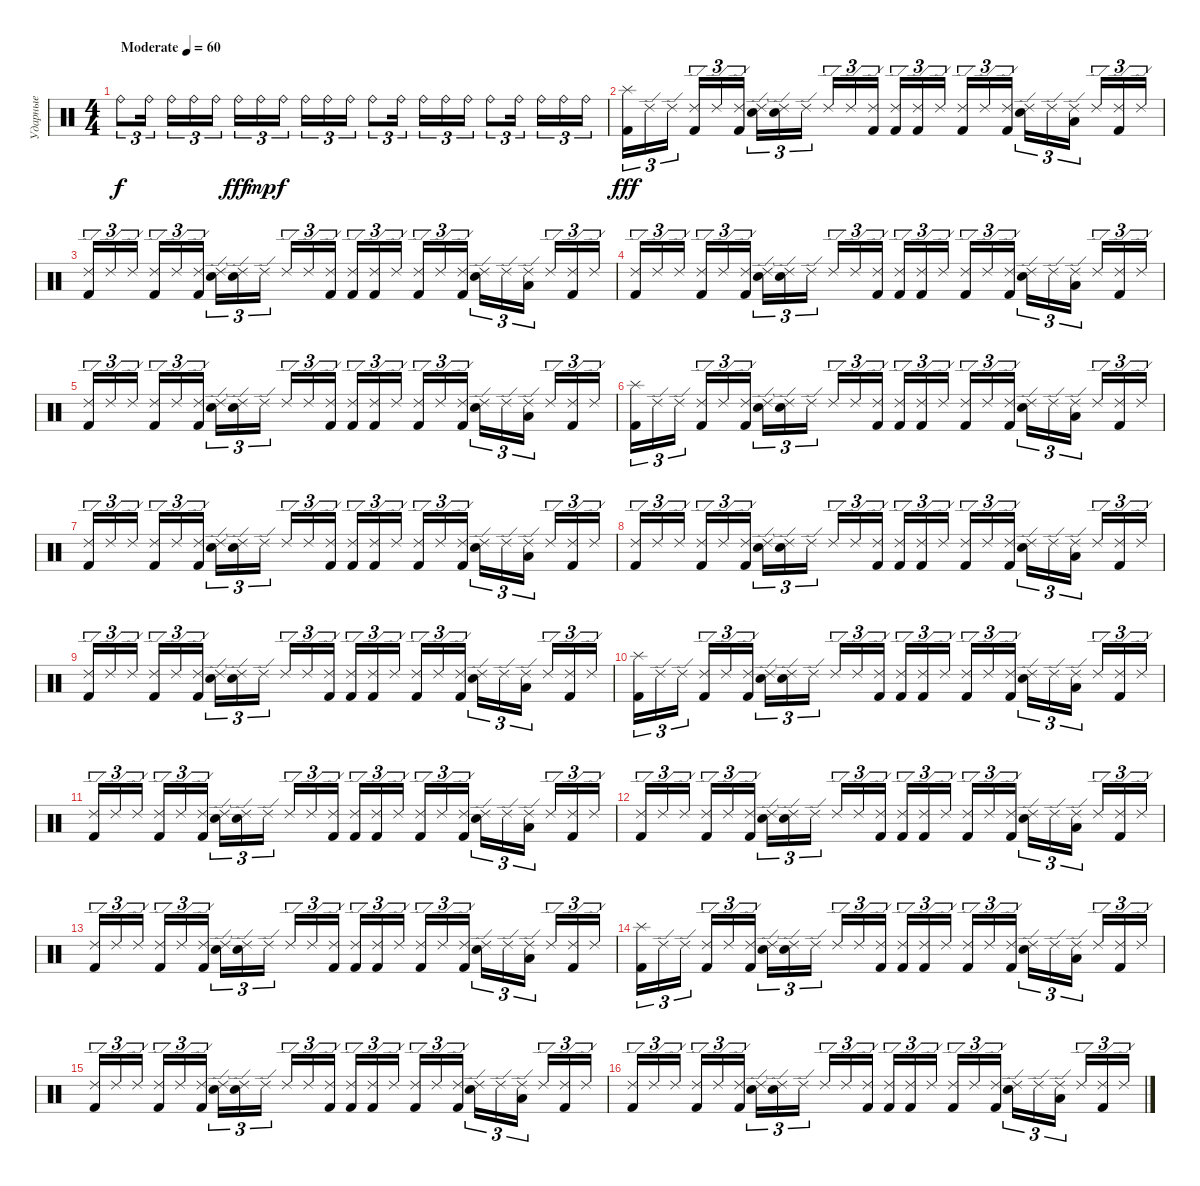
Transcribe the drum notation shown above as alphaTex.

\track ("Ударные" "Ударные") {instrument percussion}
\staff {score}
\articulation defaults
\ts (4 4)
\tempo (60 "Moderate")
\clef neutral
\ks c "Ride (bell)".8{tu (3 2) dy f} "Ride (bell)".16{tu (3 2) beam splitsecondary} "Ride (bell)".16{tu (3 2)} "Ride (bell)".16{tu (3 2)} "Ride (bell)".16{tu (3 2)} "Ride (bell)".16{tu (3 2) dy fff} "Ride (bell)".16{tu (3 2) dy mp} "Ride (bell)".16{tu (3 2) dy f beam splitsecondary} "Ride (bell)".16{tu (3 2)} "Ride (bell)".16{tu (3 2)} "Ride (bell)".16{tu (3 2)} "Ride (bell)".8{tu (3 2)} "Ride (bell)".16{tu (3 2) beam splitsecondary} "Ride (bell)".16{tu (3 2)} "Ride (bell)".16{tu (3 2)} "Ride (bell)".16{tu (3 2)} "Ride (bell)".8{tu (3 2)} "Ride (bell)".16{tu (3 2) beam splitsecondary} "Ride (bell)".16{tu (3 2)} "Ride (bell)".16{tu (3 2)} "Ride (bell)".16{tu (3 2)}
|
("Kick (hit) 2" "Splash (hit)").16{tu (3 2) dy fff} "Ride (edge) 2".16{tu (3 2)} "Ride (edge) 2".16{tu (3 2) beam splitsecondary} ("Kick (hit) 2" "Ride (edge) 2").16{tu (3 2)} "Ride (edge) 2".16{tu (3 2)} ("Kick (hit) 2" "Ride (edge) 2").16{tu (3 2)} ("Electric Snare (hit)" "Ride (edge) 2").16{tu (3 2)} ("Snare (hit)"{t} "Ride (edge) 2").16{tu (3 2)} "Ride (edge) 2".16{tu (3 2) beam splitsecondary} "Ride (edge) 2".16{tu (3 2)} "Ride (edge) 2".16{tu (3 2)} ("Kick (hit) 2" "Ride (edge) 2").16{tu (3 2)} ("Kick (hit) 2" "Ride (edge) 2").16{tu (3 2)} ("Kick (hit) 2" "Ride (edge) 2").16{tu (3 2)} "Ride (edge) 2".16{tu (3 2) beam splitsecondary} ("Kick (hit) 2" "Ride (edge) 2").16{tu (3 2)} "Ride (edge) 2".16{tu (3 2)} ("Kick (hit) 2" "Ride (edge) 2").16{tu (3 2)} ("Electric Snare (hit)" "Ride (edge) 2").16{tu (3 2)} "Ride (edge) 2".16{tu (3 2)} ("Low Floor Tom (hit)" "Ride (edge) 2").16{tu (3 2) beam splitsecondary} "Ride (edge) 2".16{tu (3 2)} ("Kick (hit) 2" "Ride (edge) 2").16{tu (3 2)} "Ride (edge) 2".16{tu (3 2)} |
("Kick (hit) 2" "Ride (edge) 2").16{tu (3 2)} "Ride (edge) 2".16{tu (3 2)} "Ride (edge) 2".16{tu (3 2) beam splitsecondary} ("Kick (hit) 2" "Ride (edge) 2").16{tu (3 2)} "Ride (edge) 2".16{tu (3 2)} ("Kick (hit) 2" "Ride (edge) 2").16{tu (3 2)} ("Electric Snare (hit)" "Ride (edge) 2").16{tu (3 2)} ("Snare (hit)"{t} "Ride (edge) 2").16{tu (3 2)} "Ride (edge) 2".16{tu (3 2) beam splitsecondary} "Ride (edge) 2".16{tu (3 2)} "Ride (edge) 2".16{tu (3 2)} ("Kick (hit) 2" "Ride (edge) 2").16{tu (3 2)} ("Kick (hit) 2" "Ride (edge) 2").16{tu (3 2)} ("Kick (hit) 2" "Ride (edge) 2").16{tu (3 2)} "Ride (edge) 2".16{tu (3 2) beam splitsecondary} ("Kick (hit) 2" "Ride (edge) 2").16{tu (3 2)} "Ride (edge) 2".16{tu (3 2)} ("Kick (hit) 2" "Ride (edge) 2").16{tu (3 2)} ("Electric Snare (hit)" "Ride (edge) 2").16{tu (3 2)} "Ride (edge) 2".16{tu (3 2)} ("Low Floor Tom (hit)" "Ride (edge) 2").16{tu (3 2) beam splitsecondary} "Ride (edge) 2".16{tu (3 2)} ("Kick (hit) 2" "Ride (edge) 2").16{tu (3 2)} "Ride (edge) 2".16{tu (3 2)} |
("Kick (hit) 2" "Ride (edge) 2").16{tu (3 2)} "Ride (edge) 2".16{tu (3 2)} "Ride (edge) 2".16{tu (3 2) beam splitsecondary} ("Kick (hit) 2" "Ride (edge) 2").16{tu (3 2)} "Ride (edge) 2".16{tu (3 2)} ("Kick (hit) 2" "Ride (edge) 2").16{tu (3 2)} ("Electric Snare (hit)" "Ride (edge) 2").16{tu (3 2)} ("Snare (hit)"{t} "Ride (edge) 2").16{tu (3 2)} "Ride (edge) 2".16{tu (3 2) beam splitsecondary} "Ride (edge) 2".16{tu (3 2)} "Ride (edge) 2".16{tu (3 2)} ("Kick (hit) 2" "Ride (edge) 2").16{tu (3 2)} ("Kick (hit) 2" "Ride (edge) 2").16{tu (3 2)} ("Kick (hit) 2" "Ride (edge) 2").16{tu (3 2)} "Ride (edge) 2".16{tu (3 2) beam splitsecondary} ("Kick (hit) 2" "Ride (edge) 2").16{tu (3 2)} "Ride (edge) 2".16{tu (3 2)} ("Kick (hit) 2" "Ride (edge) 2").16{tu (3 2)} ("Electric Snare (hit)" "Ride (edge) 2").16{tu (3 2)} "Ride (edge) 2".16{tu (3 2)} ("Low Floor Tom (hit)" "Ride (edge) 2").16{tu (3 2) beam splitsecondary} "Ride (edge) 2".16{tu (3 2)} ("Kick (hit) 2" "Ride (edge) 2").16{tu (3 2)} "Ride (edge) 2".16{tu (3 2)} |
("Kick (hit) 2" "Ride (edge) 2").16{tu (3 2)} "Ride (edge) 2".16{tu (3 2)} "Ride (edge) 2".16{tu (3 2) beam splitsecondary} ("Kick (hit) 2" "Ride (edge) 2").16{tu (3 2)} "Ride (edge) 2".16{tu (3 2)} ("Kick (hit) 2" "Ride (edge) 2").16{tu (3 2)} ("Electric Snare (hit)" "Ride (edge) 2").16{tu (3 2)} ("Snare (hit)"{t} "Ride (edge) 2").16{tu (3 2)} "Ride (edge) 2".16{tu (3 2) beam splitsecondary} "Ride (edge) 2".16{tu (3 2)} "Ride (edge) 2".16{tu (3 2)} ("Kick (hit) 2" "Ride (edge) 2").16{tu (3 2)} ("Kick (hit) 2" "Ride (edge) 2").16{tu (3 2)} ("Kick (hit) 2" "Ride (edge) 2").16{tu (3 2)} "Ride (edge) 2".16{tu (3 2) beam splitsecondary} ("Kick (hit) 2" "Ride (edge) 2").16{tu (3 2)} "Ride (edge) 2".16{tu (3 2)} ("Kick (hit) 2" "Ride (edge) 2").16{tu (3 2)} ("Electric Snare (hit)" "Ride (edge) 2").16{tu (3 2)} "Ride (edge) 2".16{tu (3 2)} ("Low Floor Tom (hit)" "Ride (edge) 2").16{tu (3 2) beam splitsecondary} "Ride (edge) 2".16{tu (3 2)} ("Kick (hit) 2" "Ride (edge) 2").16{tu (3 2)} "Ride (edge) 2".16{tu (3 2)} |
("Kick (hit) 2" "Splash (hit)").16{tu (3 2)} "Ride (edge) 2".16{tu (3 2)} "Ride (edge) 2".16{tu (3 2) beam splitsecondary} ("Kick (hit) 2" "Ride (edge) 2").16{tu (3 2)} "Ride (edge) 2".16{tu (3 2)} ("Kick (hit) 2" "Ride (edge) 2").16{tu (3 2)} ("Electric Snare (hit)" "Ride (edge) 2").16{tu (3 2)} ("Snare (hit)"{t} "Ride (edge) 2").16{tu (3 2)} "Ride (edge) 2".16{tu (3 2) beam splitsecondary} "Ride (edge) 2".16{tu (3 2)} "Ride (edge) 2".16{tu (3 2)} ("Kick (hit) 2" "Ride (edge) 2").16{tu (3 2)} ("Kick (hit) 2" "Ride (edge) 2").16{tu (3 2)} ("Kick (hit) 2" "Ride (edge) 2").16{tu (3 2)} "Ride (edge) 2".16{tu (3 2) beam splitsecondary} ("Kick (hit) 2" "Ride (edge) 2").16{tu (3 2)} "Ride (edge) 2".16{tu (3 2)} ("Kick (hit) 2" "Ride (edge) 2").16{tu (3 2)} ("Electric Snare (hit)" "Ride (edge) 2").16{tu (3 2)} "Ride (edge) 2".16{tu (3 2)} ("Low Floor Tom (hit)" "Ride (edge) 2").16{tu (3 2) beam splitsecondary} "Ride (edge) 2".16{tu (3 2)} ("Kick (hit) 2" "Ride (edge) 2").16{tu (3 2)} "Ride (edge) 2".16{tu (3 2)} |
("Kick (hit) 2" "Ride (edge) 2").16{tu (3 2)} "Ride (edge) 2".16{tu (3 2)} "Ride (edge) 2".16{tu (3 2) beam splitsecondary} ("Kick (hit) 2" "Ride (edge) 2").16{tu (3 2)} "Ride (edge) 2".16{tu (3 2)} ("Kick (hit) 2" "Ride (edge) 2").16{tu (3 2)} ("Electric Snare (hit)" "Ride (edge) 2").16{tu (3 2)} ("Snare (hit)"{t} "Ride (edge) 2").16{tu (3 2)} "Ride (edge) 2".16{tu (3 2) beam splitsecondary} "Ride (edge) 2".16{tu (3 2)} "Ride (edge) 2".16{tu (3 2)} ("Kick (hit) 2" "Ride (edge) 2").16{tu (3 2)} ("Kick (hit) 2" "Ride (edge) 2").16{tu (3 2)} ("Kick (hit) 2" "Ride (edge) 2").16{tu (3 2)} "Ride (edge) 2".16{tu (3 2) beam splitsecondary} ("Kick (hit) 2" "Ride (edge) 2").16{tu (3 2)} "Ride (edge) 2".16{tu (3 2)} ("Kick (hit) 2" "Ride (edge) 2").16{tu (3 2)} ("Electric Snare (hit)" "Ride (edge) 2").16{tu (3 2)} "Ride (edge) 2".16{tu (3 2)} ("Low Floor Tom (hit)" "Ride (edge) 2").16{tu (3 2) beam splitsecondary} "Ride (edge) 2".16{tu (3 2)} ("Kick (hit) 2" "Ride (edge) 2").16{tu (3 2)} "Ride (edge) 2".16{tu (3 2)} |
("Kick (hit) 2" "Ride (edge) 2").16{tu (3 2)} "Ride (edge) 2".16{tu (3 2)} "Ride (edge) 2".16{tu (3 2) beam splitsecondary} ("Kick (hit) 2" "Ride (edge) 2").16{tu (3 2)} "Ride (edge) 2".16{tu (3 2)} ("Kick (hit) 2" "Ride (edge) 2").16{tu (3 2)} ("Electric Snare (hit)" "Ride (edge) 2").16{tu (3 2)} ("Snare (hit)"{t} "Ride (edge) 2").16{tu (3 2)} "Ride (edge) 2".16{tu (3 2) beam splitsecondary} "Ride (edge) 2".16{tu (3 2)} "Ride (edge) 2".16{tu (3 2)} ("Kick (hit) 2" "Ride (edge) 2").16{tu (3 2)} ("Kick (hit) 2" "Ride (edge) 2").16{tu (3 2)} ("Kick (hit) 2" "Ride (edge) 2").16{tu (3 2)} "Ride (edge) 2".16{tu (3 2) beam splitsecondary} ("Kick (hit) 2" "Ride (edge) 2").16{tu (3 2)} "Ride (edge) 2".16{tu (3 2)} ("Kick (hit) 2" "Ride (edge) 2").16{tu (3 2)} ("Electric Snare (hit)" "Ride (edge) 2").16{tu (3 2)} "Ride (edge) 2".16{tu (3 2)} ("Low Floor Tom (hit)" "Ride (edge) 2").16{tu (3 2) beam splitsecondary} "Ride (edge) 2".16{tu (3 2)} ("Kick (hit) 2" "Ride (edge) 2").16{tu (3 2)} "Ride (edge) 2".16{tu (3 2)} |
("Kick (hit) 2" "Ride (edge) 2").16{tu (3 2)} "Ride (edge) 2".16{tu (3 2)} "Ride (edge) 2".16{tu (3 2) beam splitsecondary} ("Kick (hit) 2" "Ride (edge) 2").16{tu (3 2)} "Ride (edge) 2".16{tu (3 2)} ("Kick (hit) 2" "Ride (edge) 2").16{tu (3 2)} ("Electric Snare (hit)" "Ride (edge) 2").16{tu (3 2)} ("Snare (hit)"{t} "Ride (edge) 2").16{tu (3 2)} "Ride (edge) 2".16{tu (3 2) beam splitsecondary} "Ride (edge) 2".16{tu (3 2)} "Ride (edge) 2".16{tu (3 2)} ("Kick (hit) 2" "Ride (edge) 2").16{tu (3 2)} ("Kick (hit) 2" "Ride (edge) 2").16{tu (3 2)} ("Kick (hit) 2" "Ride (edge) 2").16{tu (3 2)} "Ride (edge) 2".16{tu (3 2) beam splitsecondary} ("Kick (hit) 2" "Ride (edge) 2").16{tu (3 2)} "Ride (edge) 2".16{tu (3 2)} ("Kick (hit) 2" "Ride (edge) 2").16{tu (3 2)} ("Electric Snare (hit)" "Ride (edge) 2").16{tu (3 2)} "Ride (edge) 2".16{tu (3 2)} ("Low Floor Tom (hit)" "Ride (edge) 2").16{tu (3 2) beam splitsecondary} "Ride (edge) 2".16{tu (3 2)} ("Kick (hit) 2" "Ride (edge) 2").16{tu (3 2)} "Ride (edge) 2".16{tu (3 2)} |
("Kick (hit) 2" "Splash (hit)").16{tu (3 2)} "Ride (edge) 2".16{tu (3 2)} "Ride (edge) 2".16{tu (3 2) beam splitsecondary} ("Kick (hit) 2" "Ride (edge) 2").16{tu (3 2)} "Ride (edge) 2".16{tu (3 2)} ("Kick (hit) 2" "Ride (edge) 2").16{tu (3 2)} ("Electric Snare (hit)" "Ride (edge) 2").16{tu (3 2)} ("Snare (hit)"{t} "Ride (edge) 2").16{tu (3 2)} "Ride (edge) 2".16{tu (3 2) beam splitsecondary} "Ride (edge) 2".16{tu (3 2)} "Ride (edge) 2".16{tu (3 2)} ("Kick (hit) 2" "Ride (edge) 2").16{tu (3 2)} ("Kick (hit) 2" "Ride (edge) 2").16{tu (3 2)} ("Kick (hit) 2" "Ride (edge) 2").16{tu (3 2)} "Ride (edge) 2".16{tu (3 2) beam splitsecondary} ("Kick (hit) 2" "Ride (edge) 2").16{tu (3 2)} "Ride (edge) 2".16{tu (3 2)} ("Kick (hit) 2" "Ride (edge) 2").16{tu (3 2)} ("Electric Snare (hit)" "Ride (edge) 2").16{tu (3 2)} "Ride (edge) 2".16{tu (3 2)} ("Low Floor Tom (hit)" "Ride (edge) 2").16{tu (3 2) beam splitsecondary} "Ride (edge) 2".16{tu (3 2)} ("Kick (hit) 2" "Ride (edge) 2").16{tu (3 2)} "Ride (edge) 2".16{tu (3 2)} |
("Kick (hit) 2" "Ride (edge) 2").16{tu (3 2)} "Ride (edge) 2".16{tu (3 2)} "Ride (edge) 2".16{tu (3 2) beam splitsecondary} ("Kick (hit) 2" "Ride (edge) 2").16{tu (3 2)} "Ride (edge) 2".16{tu (3 2)} ("Kick (hit) 2" "Ride (edge) 2").16{tu (3 2)} ("Electric Snare (hit)" "Ride (edge) 2").16{tu (3 2)} ("Snare (hit)"{t} "Ride (edge) 2").16{tu (3 2)} "Ride (edge) 2".16{tu (3 2) beam splitsecondary} "Ride (edge) 2".16{tu (3 2)} "Ride (edge) 2".16{tu (3 2)} ("Kick (hit) 2" "Ride (edge) 2").16{tu (3 2)} ("Kick (hit) 2" "Ride (edge) 2").16{tu (3 2)} ("Kick (hit) 2" "Ride (edge) 2").16{tu (3 2)} "Ride (edge) 2".16{tu (3 2) beam splitsecondary} ("Kick (hit) 2" "Ride (edge) 2").16{tu (3 2)} "Ride (edge) 2".16{tu (3 2)} ("Kick (hit) 2" "Ride (edge) 2").16{tu (3 2)} ("Electric Snare (hit)" "Ride (edge) 2").16{tu (3 2)} "Ride (edge) 2".16{tu (3 2)} ("Low Floor Tom (hit)" "Ride (edge) 2").16{tu (3 2) beam splitsecondary} "Ride (edge) 2".16{tu (3 2)} ("Kick (hit) 2" "Ride (edge) 2").16{tu (3 2)} "Ride (edge) 2".16{tu (3 2)} |
("Kick (hit) 2" "Ride (edge) 2").16{tu (3 2)} "Ride (edge) 2".16{tu (3 2)} "Ride (edge) 2".16{tu (3 2) beam splitsecondary} ("Kick (hit) 2" "Ride (edge) 2").16{tu (3 2)} "Ride (edge) 2".16{tu (3 2)} ("Kick (hit) 2" "Ride (edge) 2").16{tu (3 2)} ("Electric Snare (hit)" "Ride (edge) 2").16{tu (3 2)} ("Snare (hit)"{t} "Ride (edge) 2").16{tu (3 2)} "Ride (edge) 2".16{tu (3 2) beam splitsecondary} "Ride (edge) 2".16{tu (3 2)} "Ride (edge) 2".16{tu (3 2)} ("Kick (hit) 2" "Ride (edge) 2").16{tu (3 2)} ("Kick (hit) 2" "Ride (edge) 2").16{tu (3 2)} ("Kick (hit) 2" "Ride (edge) 2").16{tu (3 2)} "Ride (edge) 2".16{tu (3 2) beam splitsecondary} ("Kick (hit) 2" "Ride (edge) 2").16{tu (3 2)} "Ride (edge) 2".16{tu (3 2)} ("Kick (hit) 2" "Ride (edge) 2").16{tu (3 2)} ("Electric Snare (hit)" "Ride (edge) 2").16{tu (3 2)} "Ride (edge) 2".16{tu (3 2)} ("Low Floor Tom (hit)" "Ride (edge) 2").16{tu (3 2) beam splitsecondary} "Ride (edge) 2".16{tu (3 2)} ("Kick (hit) 2" "Ride (edge) 2").16{tu (3 2)} "Ride (edge) 2".16{tu (3 2)} |
("Kick (hit) 2" "Ride (edge) 2").16{tu (3 2)} "Ride (edge) 2".16{tu (3 2)} "Ride (edge) 2".16{tu (3 2) beam splitsecondary} ("Kick (hit) 2" "Ride (edge) 2").16{tu (3 2)} "Ride (edge) 2".16{tu (3 2)} ("Kick (hit) 2" "Ride (edge) 2").16{tu (3 2)} ("Electric Snare (hit)" "Ride (edge) 2").16{tu (3 2)} ("Snare (hit)"{t} "Ride (edge) 2").16{tu (3 2)} "Ride (edge) 2".16{tu (3 2) beam splitsecondary} "Ride (edge) 2".16{tu (3 2)} "Ride (edge) 2".16{tu (3 2)} ("Kick (hit) 2" "Ride (edge) 2").16{tu (3 2)} ("Kick (hit) 2" "Ride (edge) 2").16{tu (3 2)} ("Kick (hit) 2" "Ride (edge) 2").16{tu (3 2)} "Ride (edge) 2".16{tu (3 2) beam splitsecondary} ("Kick (hit) 2" "Ride (edge) 2").16{tu (3 2)} "Ride (edge) 2".16{tu (3 2)} ("Kick (hit) 2" "Ride (edge) 2").16{tu (3 2)} ("Electric Snare (hit)" "Ride (edge) 2").16{tu (3 2)} "Ride (edge) 2".16{tu (3 2)} ("Low Floor Tom (hit)" "Ride (edge) 2").16{tu (3 2) beam splitsecondary} "Ride (edge) 2".16{tu (3 2)} ("Kick (hit) 2" "Ride (edge) 2").16{tu (3 2)} "Ride (edge) 2".16{tu (3 2)} |
("Kick (hit) 2" "Splash (hit)").16{tu (3 2)} "Ride (edge) 2".16{tu (3 2)} "Ride (edge) 2".16{tu (3 2) beam splitsecondary} ("Kick (hit) 2" "Ride (edge) 2").16{tu (3 2)} "Ride (edge) 2".16{tu (3 2)} ("Kick (hit) 2" "Ride (edge) 2").16{tu (3 2)} ("Electric Snare (hit)" "Ride (edge) 2").16{tu (3 2)} ("Snare (hit)"{t} "Ride (edge) 2").16{tu (3 2)} "Ride (edge) 2".16{tu (3 2) beam splitsecondary} "Ride (edge) 2".16{tu (3 2)} "Ride (edge) 2".16{tu (3 2)} ("Kick (hit) 2" "Ride (edge) 2").16{tu (3 2)} ("Kick (hit) 2" "Ride (edge) 2").16{tu (3 2)} ("Kick (hit) 2" "Ride (edge) 2").16{tu (3 2)} "Ride (edge) 2".16{tu (3 2) beam splitsecondary} ("Kick (hit) 2" "Ride (edge) 2").16{tu (3 2)} "Ride (edge) 2".16{tu (3 2)} ("Kick (hit) 2" "Ride (edge) 2").16{tu (3 2)} ("Electric Snare (hit)" "Ride (edge) 2").16{tu (3 2)} "Ride (edge) 2".16{tu (3 2)} ("Low Floor Tom (hit)" "Ride (edge) 2").16{tu (3 2) beam splitsecondary} "Ride (edge) 2".16{tu (3 2)} ("Kick (hit) 2" "Ride (edge) 2").16{tu (3 2)} "Ride (edge) 2".16{tu (3 2)} |
("Kick (hit) 2" "Ride (edge) 2").16{tu (3 2)} "Ride (edge) 2".16{tu (3 2)} "Ride (edge) 2".16{tu (3 2) beam splitsecondary} ("Kick (hit) 2" "Ride (edge) 2").16{tu (3 2)} "Ride (edge) 2".16{tu (3 2)} ("Kick (hit) 2" "Ride (edge) 2").16{tu (3 2)} ("Electric Snare (hit)" "Ride (edge) 2").16{tu (3 2)} ("Snare (hit)"{t} "Ride (edge) 2").16{tu (3 2)} "Ride (edge) 2".16{tu (3 2) beam splitsecondary} "Ride (edge) 2".16{tu (3 2)} "Ride (edge) 2".16{tu (3 2)} ("Kick (hit) 2" "Ride (edge) 2").16{tu (3 2)} ("Kick (hit) 2" "Ride (edge) 2").16{tu (3 2)} ("Kick (hit) 2" "Ride (edge) 2").16{tu (3 2)} "Ride (edge) 2".16{tu (3 2) beam splitsecondary} ("Kick (hit) 2" "Ride (edge) 2").16{tu (3 2)} "Ride (edge) 2".16{tu (3 2)} ("Kick (hit) 2" "Ride (edge) 2").16{tu (3 2)} ("Electric Snare (hit)" "Ride (edge) 2").16{tu (3 2)} "Ride (edge) 2".16{tu (3 2)} ("Low Floor Tom (hit)" "Ride (edge) 2").16{tu (3 2) beam splitsecondary} "Ride (edge) 2".16{tu (3 2)} ("Kick (hit) 2" "Ride (edge) 2").16{tu (3 2)} "Ride (edge) 2".16{tu (3 2)} |
("Kick (hit) 2" "Ride (edge) 2").16{tu (3 2)} "Ride (edge) 2".16{tu (3 2)} "Ride (edge) 2".16{tu (3 2) beam splitsecondary} ("Kick (hit) 2" "Ride (edge) 2").16{tu (3 2)} "Ride (edge) 2".16{tu (3 2)} ("Kick (hit) 2" "Ride (edge) 2").16{tu (3 2)} ("Electric Snare (hit)" "Ride (edge) 2").16{tu (3 2)} ("Snare (hit)"{t} "Ride (edge) 2").16{tu (3 2)} "Ride (edge) 2".16{tu (3 2) beam splitsecondary} "Ride (edge) 2".16{tu (3 2)} "Ride (edge) 2".16{tu (3 2)} ("Kick (hit) 2" "Ride (edge) 2").16{tu (3 2)} ("Kick (hit) 2" "Ride (edge) 2").16{tu (3 2)} ("Kick (hit) 2" "Ride (edge) 2").16{tu (3 2)} "Ride (edge) 2".16{tu (3 2) beam splitsecondary} ("Kick (hit) 2" "Ride (edge) 2").16{tu (3 2)} "Ride (edge) 2".16{tu (3 2)} ("Kick (hit) 2" "Ride (edge) 2").16{tu (3 2)} ("Electric Snare (hit)" "Ride (edge) 2").16{tu (3 2)} "Ride (edge) 2".16{tu (3 2)} ("Low Floor Tom (hit)" "Ride (edge) 2").16{tu (3 2) beam splitsecondary} "Ride (edge) 2".16{tu (3 2)} ("Kick (hit) 2" "Ride (edge) 2").16{tu (3 2)} "Ride (edge) 2".16{tu (3 2)}
